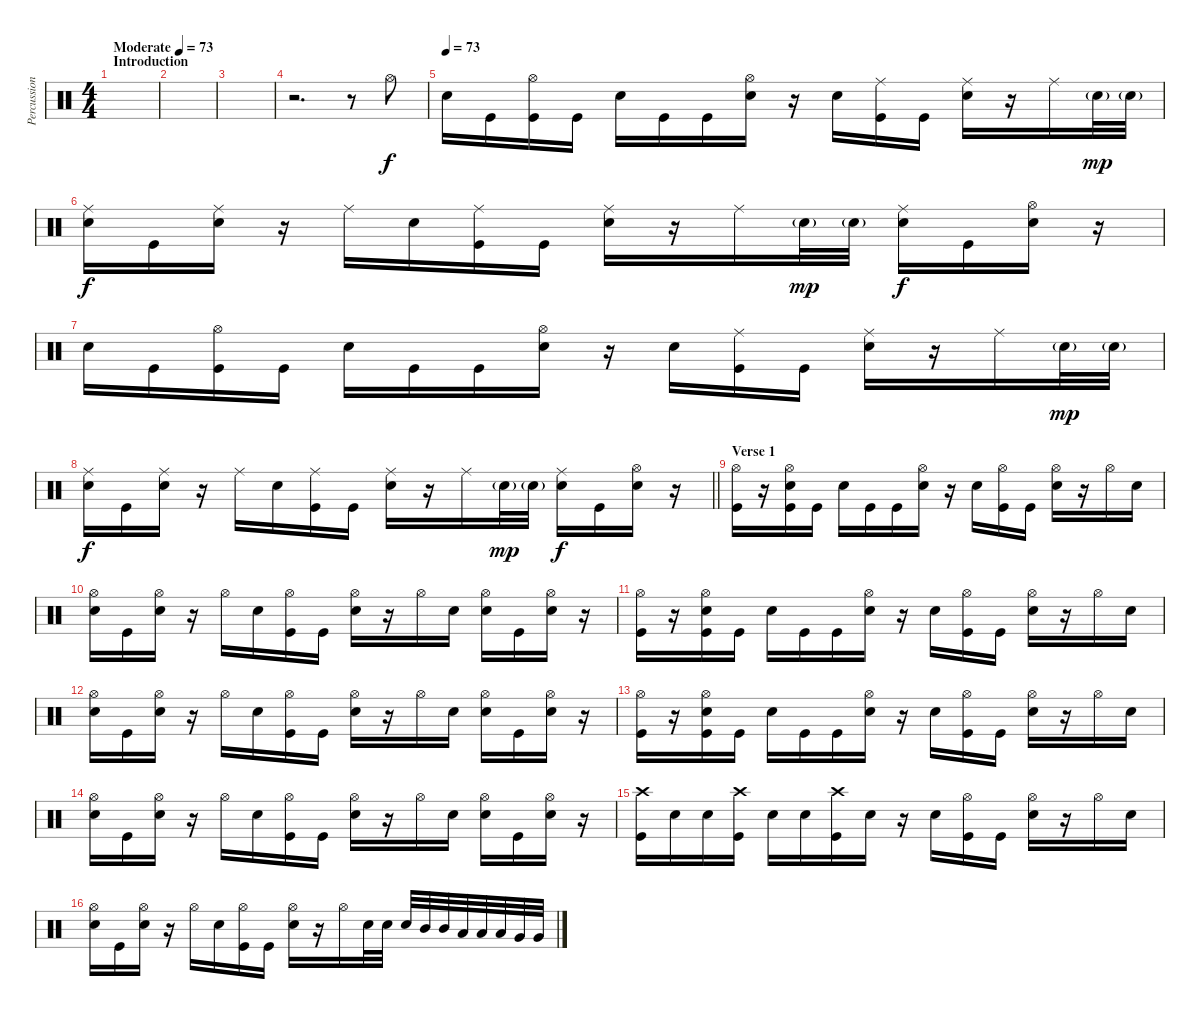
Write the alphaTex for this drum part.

\track ("Percussion" "Percussion") {instrument percussion}
\staff {score}
\articulation defaults
\ts (4 4)
\section ("" "Introduction")
\tempo (73 "Moderate")
\clef neutral
\ks c
|
|
|
r.2{d} r.8 "Hi-Hat (open)".8 |
\tempo (73)
"Electric Snare (hit)".16 "Kick (hit)".16 ("Hi-Hat (open)" "Kick (hit)").16 "Kick (hit)".16 "Electric Snare (hit)".16 "Kick (hit)".16 "Kick (hit)".16 ("Hi-Hat (open)" "Electric Snare (hit)").16 r.16 "Electric Snare (hit)".16 ("Ride (middle)" "Kick (hit)").16 "Kick (hit)".16 ("Ride (middle)" "Electric Snare (hit)").16 r.16 "Ride (middle)".16 "Electric Snare (hit)"{g}.32{dy mp} "Electric Snare (hit)"{g}.32 |
("Ride (middle)" "Electric Snare (hit)").16{dy f} "Kick (hit)".16 ("Ride (middle)" "Electric Snare (hit)").16 r.16 "Ride (middle)".16 "Electric Snare (hit)".16 ("Ride (middle)" "Kick (hit)").16 "Kick (hit)".16 ("Ride (middle)" "Electric Snare (hit)").16 r.16 "Ride (middle)".16 "Electric Snare (hit)"{g}.32{dy mp} "Electric Snare (hit)"{g}.32 ("Ride (middle)" "Electric Snare (hit)").16{dy f} "Kick (hit)".16 ("Hi-Hat (open)" "Electric Snare (hit)").16 r.16 |
"Electric Snare (hit)".16 "Kick (hit)".16 ("Hi-Hat (open)" "Kick (hit)").16 "Kick (hit)".16 "Electric Snare (hit)".16 "Kick (hit)".16 "Kick (hit)".16 ("Hi-Hat (open)" "Electric Snare (hit)").16 r.16 "Electric Snare (hit)".16 ("Ride (middle)" "Kick (hit)").16 "Kick (hit)".16 ("Ride (middle)" "Electric Snare (hit)").16 r.16 "Ride (middle)".16 "Electric Snare (hit)"{g}.32{dy mp} "Electric Snare (hit)"{g}.32 |
\barLineRight lightlight
("Ride (middle)" "Electric Snare (hit)").16{dy f} "Kick (hit)".16 ("Ride (middle)" "Electric Snare (hit)").16 r.16 "Ride (middle)".16 "Electric Snare (hit)".16 ("Ride (middle)" "Kick (hit)").16 "Kick (hit)".16 ("Ride (middle)" "Electric Snare (hit)").16 r.16 "Ride (middle)".16 "Electric Snare (hit)"{g}.32{dy mp} "Electric Snare (hit)"{g}.32 ("Ride (middle)" "Electric Snare (hit)").16{dy f} "Kick (hit)".16 ("Hi-Hat (open)" "Electric Snare (hit)").16 r.16 |
\section ("" "Verse 1")
("Hi-Hat (open)" "Kick (hit)").16 r.16 ("Hi-Hat (open)" "Electric Snare (hit)" "Kick (hit)").16 "Kick (hit)".16 "Electric Snare (hit)".16 "Kick (hit)".16 "Kick (hit)".16 ("Hi-Hat (open)" "Electric Snare (hit)").16 r.16 "Electric Snare (hit)".16 ("Hi-Hat (open)" "Kick (hit)").16 "Kick (hit)".16 ("Hi-Hat (open)" "Electric Snare (hit)").16 r.16 "Hi-Hat (open)".16 "Electric Snare (hit)".16 |
("Hi-Hat (open)" "Electric Snare (hit)").16 "Kick (hit)".16 ("Hi-Hat (open)" "Electric Snare (hit)").16 r.16 "Hi-Hat (open)".16 "Electric Snare (hit)".16 ("Hi-Hat (open)" "Kick (hit)").16 "Kick (hit)".16 ("Hi-Hat (open)" "Electric Snare (hit)").16 r.16 "Hi-Hat (open)".16 "Electric Snare (hit)".16 ("Hi-Hat (open)" "Electric Snare (hit)").16 "Kick (hit)".16 ("Hi-Hat (open)" "Electric Snare (hit)").16 r.16 |
("Hi-Hat (open)" "Kick (hit)").16 r.16 ("Hi-Hat (open)" "Electric Snare (hit)" "Kick (hit)").16 "Kick (hit)".16 "Electric Snare (hit)".16 "Kick (hit)".16 "Kick (hit)".16 ("Hi-Hat (open)" "Electric Snare (hit)").16 r.16 "Electric Snare (hit)".16 ("Hi-Hat (open)" "Kick (hit)").16 "Kick (hit)".16 ("Hi-Hat (open)" "Electric Snare (hit)").16 r.16 "Hi-Hat (open)".16 "Electric Snare (hit)".16 |
("Hi-Hat (open)" "Electric Snare (hit)").16 "Kick (hit)".16 ("Hi-Hat (open)" "Electric Snare (hit)").16 r.16 "Hi-Hat (open)".16 "Electric Snare (hit)".16 ("Hi-Hat (open)" "Kick (hit)").16 "Kick (hit)".16 ("Hi-Hat (open)" "Electric Snare (hit)").16 r.16 "Hi-Hat (open)".16 "Electric Snare (hit)".16 ("Hi-Hat (open)" "Electric Snare (hit)").16 "Kick (hit)".16 ("Hi-Hat (open)" "Electric Snare (hit)").16 r.16 |
("Hi-Hat (open)" "Kick (hit)").16 r.16 ("Hi-Hat (open)" "Electric Snare (hit)" "Kick (hit)").16 "Kick (hit)".16 "Electric Snare (hit)".16 "Kick (hit)".16 "Kick (hit)".16 ("Hi-Hat (open)" "Electric Snare (hit)").16 r.16 "Electric Snare (hit)".16 ("Hi-Hat (open)" "Kick (hit)").16 "Kick (hit)".16 ("Hi-Hat (open)" "Electric Snare (hit)").16 r.16 "Hi-Hat (open)".16 "Electric Snare (hit)".16 |
("Hi-Hat (open)" "Electric Snare (hit)").16 "Kick (hit)".16 ("Hi-Hat (open)" "Electric Snare (hit)").16 r.16 "Hi-Hat (open)".16 "Electric Snare (hit)".16 ("Hi-Hat (open)" "Kick (hit)").16 "Kick (hit)".16 ("Hi-Hat (open)" "Electric Snare (hit)").16 r.16 "Hi-Hat (open)".16 "Electric Snare (hit)".16 ("Hi-Hat (open)" "Electric Snare (hit)").16 "Kick (hit)".16 ("Hi-Hat (open)" "Electric Snare (hit)").16 r.16 |
("Crash high (hit)" "Kick (hit)").16 "Electric Snare (hit)".16 "Electric Snare (hit)".16 ("Crash high (hit)" "Kick (hit)").16 "Electric Snare (hit)".16 "Electric Snare (hit)".16 ("Crash high (hit)" "Kick (hit)").16 "Electric Snare (hit)".16 r.16 "Electric Snare (hit)".16 ("Hi-Hat (open)" "Kick (hit)").16 "Kick (hit)".16 ("Hi-Hat (open)" "Electric Snare (hit)").16 r.16 "Hi-Hat (open)".16 "Electric Snare (hit)".16 |
("Hi-Hat (open)" "Electric Snare (hit)").16 "Kick (hit)".16 ("Hi-Hat (open)" "Electric Snare (hit)").16 r.16 "Hi-Hat (open)".16 "Electric Snare (hit)".16 ("Hi-Hat (open)" "Kick (hit)").16 "Kick (hit)".16 ("Hi-Hat (open)" "Electric Snare (hit)").16 r.16 "Hi-Hat (open)".16 "Electric Snare (hit)".32 "Electric Snare (hit)".32 "Electric Snare (hit)".32 "Mid Tom (hit)".32 "Mid Tom (hit)".32 "Low Tom (hit)".32 "Low Tom (hit)".32 "Low Tom (hit)".32 "Very Low Tom (hit)".32 "Very Low Tom (hit)".32
